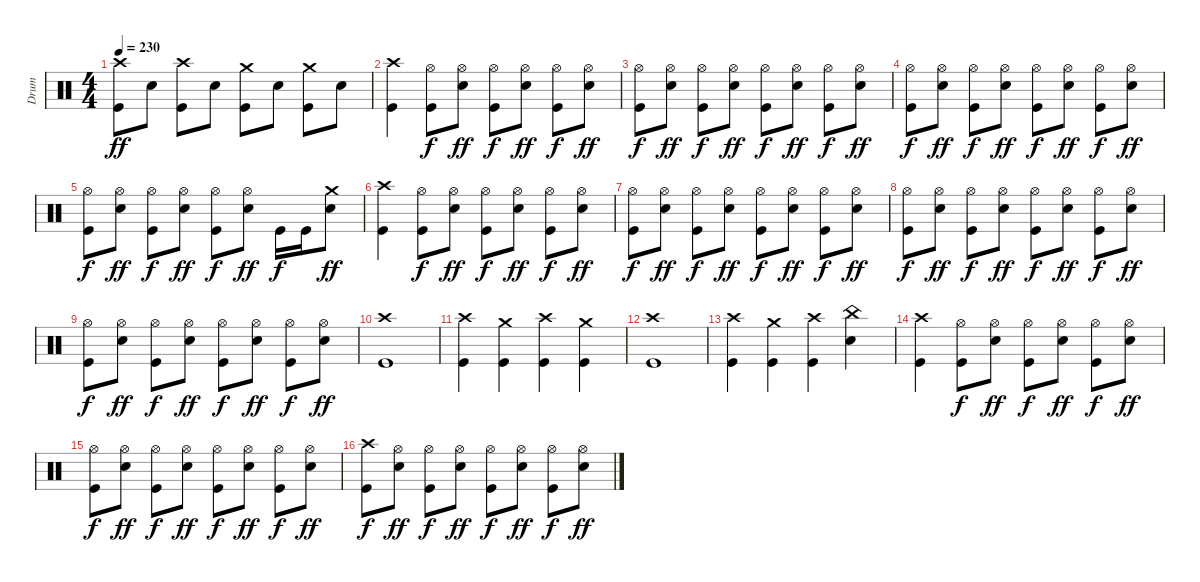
\track ("Drum" "Drum") {instrument percussion}
\staff {score}
\articulation defaults
\ts (4 4)
\tempo 230
\clef neutral
\ks c
("Kick (hit)" "Crash high (hit)").8{dy ff} "Electric Snare (hit)".8 ("Kick (hit)" "Crash high (hit)").8 "Electric Snare (hit)".8 ("Kick (hit)" "Crash medium (hit)").8 "Electric Snare (hit)".8 ("Kick (hit)" "Crash medium (hit)").8 "Electric Snare (hit)".8 |
("Kick (hit)" "Crash high (hit)").4 ("Kick (hit)" "Hi-Hat (open)").8{dy f} ("Electric Snare (hit)" "Hi-Hat (open)").8{dy ff} ("Kick (hit)" "Hi-Hat (open)").8{dy f} ("Electric Snare (hit)" "Hi-Hat (open)").8{dy ff} ("Kick (hit)" "Hi-Hat (open)").8{dy f} ("Electric Snare (hit)" "Hi-Hat (open)").8{dy ff} |
("Kick (hit)" "Hi-Hat (open)").8{dy f} ("Electric Snare (hit)" "Hi-Hat (open)").8{dy ff} ("Kick (hit)" "Hi-Hat (open)").8{dy f} ("Electric Snare (hit)" "Hi-Hat (open)").8{dy ff} ("Kick (hit)" "Hi-Hat (open)").8{dy f} ("Electric Snare (hit)" "Hi-Hat (open)").8{dy ff} ("Kick (hit)" "Hi-Hat (open)").8{dy f} ("Electric Snare (hit)" "Hi-Hat (open)").8{dy ff} |
("Kick (hit)" "Hi-Hat (open)").8{dy f} ("Electric Snare (hit)" "Hi-Hat (open)").8{dy ff} ("Kick (hit)" "Hi-Hat (open)").8{dy f} ("Electric Snare (hit)" "Hi-Hat (open)").8{dy ff} ("Kick (hit)" "Hi-Hat (open)").8{dy f} ("Electric Snare (hit)" "Hi-Hat (open)").8{dy ff} ("Kick (hit)" "Hi-Hat (open)").8{dy f} ("Electric Snare (hit)" "Hi-Hat (open)").8{dy ff} |
("Kick (hit)" "Hi-Hat (open)").8{dy f} ("Electric Snare (hit)" "Hi-Hat (open)").8{dy ff} ("Kick (hit)" "Hi-Hat (open)").8{dy f} ("Electric Snare (hit)" "Hi-Hat (open)").8{dy ff} ("Kick (hit)" "Hi-Hat (open)").8{dy f} ("Electric Snare (hit)" "Hi-Hat (open)").8{dy ff} "Kick (hit)".16{dy f} "Kick (hit)".16 ("Electric Snare (hit)" "Crash medium (hit)").8{dy ff} |
("Kick (hit)" "Crash high (hit)").4 ("Kick (hit)" "Hi-Hat (open)").8{dy f} ("Electric Snare (hit)" "Hi-Hat (open)").8{dy ff} ("Kick (hit)" "Hi-Hat (open)").8{dy f} ("Electric Snare (hit)" "Hi-Hat (open)").8{dy ff} ("Kick (hit)" "Hi-Hat (open)").8{dy f} ("Electric Snare (hit)" "Hi-Hat (open)").8{dy ff} |
("Kick (hit)" "Hi-Hat (open)").8{dy f} ("Electric Snare (hit)" "Hi-Hat (open)").8{dy ff} ("Kick (hit)" "Hi-Hat (open)").8{dy f} ("Electric Snare (hit)" "Hi-Hat (open)").8{dy ff} ("Kick (hit)" "Hi-Hat (open)").8{dy f} ("Electric Snare (hit)" "Hi-Hat (open)").8{dy ff} ("Kick (hit)" "Hi-Hat (open)").8{dy f} ("Electric Snare (hit)" "Hi-Hat (open)").8{dy ff} |
("Kick (hit)" "Hi-Hat (open)").8{dy f} ("Electric Snare (hit)" "Hi-Hat (open)").8{dy ff} ("Kick (hit)" "Hi-Hat (open)").8{dy f} ("Electric Snare (hit)" "Hi-Hat (open)").8{dy ff} ("Kick (hit)" "Hi-Hat (open)").8{dy f} ("Electric Snare (hit)" "Hi-Hat (open)").8{dy ff} ("Kick (hit)" "Hi-Hat (open)").8{dy f} ("Electric Snare (hit)" "Hi-Hat (open)").8{dy ff} |
("Kick (hit)" "Hi-Hat (open)").8{dy f} ("Electric Snare (hit)" "Hi-Hat (open)").8{dy ff} ("Kick (hit)" "Hi-Hat (open)").8{dy f} ("Electric Snare (hit)" "Hi-Hat (open)").8{dy ff} ("Kick (hit)" "Hi-Hat (open)").8{dy f} ("Electric Snare (hit)" "Hi-Hat (open)").8{dy ff} ("Kick (hit)" "Hi-Hat (open)").8{dy f} ("Electric Snare (hit)" "Hi-Hat (open)").8{dy ff} |
("Kick (hit)" "Crash high (hit)").1 |
("Kick (hit)" "Crash high (hit)").4 ("Kick (hit)" "Crash medium (hit)").4 ("Kick (hit)" "Crash high (hit)").4 ("Kick (hit)" "Crash medium (hit)").4 |
("Kick (hit)" "Crash high (hit)").1 |
("Kick (hit)" "Crash high (hit)").4 ("Kick (hit)" "Crash medium (hit)").4 ("Kick (hit)" "Crash high (hit)").4 ("Electric Snare (hit)" "China (hit)").4 |
("Kick (hit)" "Crash high (hit)").4 ("Kick (hit)" "Hi-Hat (open)").8{dy f} ("Electric Snare (hit)" "Hi-Hat (open)").8{dy ff} ("Kick (hit)" "Hi-Hat (open)").8{dy f} ("Electric Snare (hit)" "Hi-Hat (open)").8{dy ff} ("Kick (hit)" "Hi-Hat (open)").8{dy f} ("Electric Snare (hit)" "Hi-Hat (open)").8{dy ff} |
("Kick (hit)" "Hi-Hat (open)").8{dy f} ("Electric Snare (hit)" "Hi-Hat (open)").8{dy ff} ("Kick (hit)" "Hi-Hat (open)").8{dy f} ("Electric Snare (hit)" "Hi-Hat (open)").8{dy ff} ("Kick (hit)" "Hi-Hat (open)").8{dy f} ("Electric Snare (hit)" "Hi-Hat (open)").8{dy ff} ("Kick (hit)" "Hi-Hat (open)").8{dy f} ("Electric Snare (hit)" "Hi-Hat (open)").8{dy ff} |
("Kick (hit)" "Crash high (hit)").8{dy f} ("Electric Snare (hit)" "Hi-Hat (open)").8{dy ff} ("Kick (hit)" "Hi-Hat (open)").8{dy f} ("Electric Snare (hit)" "Hi-Hat (open)").8{dy ff} ("Kick (hit)" "Hi-Hat (open)").8{dy f} ("Electric Snare (hit)" "Hi-Hat (open)").8{dy ff} ("Kick (hit)" "Hi-Hat (open)").8{dy f} ("Electric Snare (hit)" "Hi-Hat (open)").8{dy ff}
